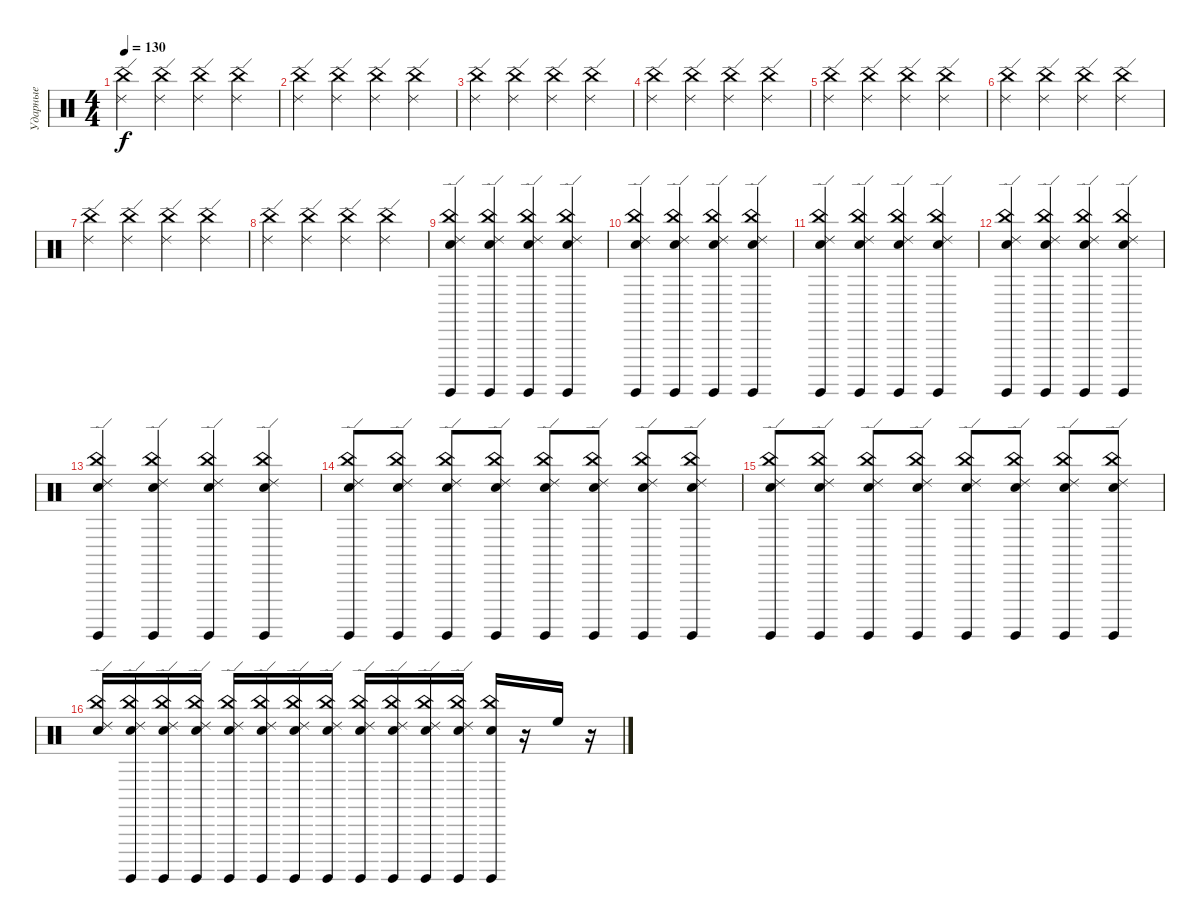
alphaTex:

\track ("Ударные" "Ударные") {instrument percussion}
\staff {score}
\articulation defaults
\ts (4 4)
\tempo 130
\clef neutral
\ks c
("Ride (edge) 2" "China (hit)").4{dy f} ("Ride (edge) 2" "China (hit)").4 ("Ride (edge) 2" "China (hit)").4 ("Ride (edge) 2" "China (hit)").4 |
("Ride (edge) 2" "China (hit)").4 ("Ride (edge) 2" "China (hit)").4 ("Ride (edge) 2" "China (hit)").4 ("Ride (edge) 2" "China (hit)").4 |
("Ride (edge) 2" "China (hit)").4 ("Ride (edge) 2" "China (hit)").4 ("Ride (edge) 2" "China (hit)").4 ("Ride (edge) 2" "China (hit)").4 |
("Ride (edge) 2" "China (hit)").4 ("Ride (edge) 2" "China (hit)").4 ("Ride (edge) 2" "China (hit)").4 ("Ride (edge) 2" "China (hit)").4 |
("Ride (edge) 2" "China (hit)").4 ("Ride (edge) 2" "China (hit)").4 ("Ride (edge) 2" "China (hit)").4 ("Ride (edge) 2" "China (hit)").4 |
("Ride (edge) 2" "China (hit)").4 ("Ride (edge) 2" "China (hit)").4 ("Ride (edge) 2" "China (hit)").4 ("Ride (edge) 2" "China (hit)").4 |
("Ride (edge) 2" "China (hit)").4 ("Ride (edge) 2" "China (hit)").4 ("Ride (edge) 2" "China (hit)").4 ("Ride (edge) 2" "China (hit)").4 |
("Ride (edge) 2" "China (hit)").4 ("Ride (edge) 2" "China (hit)").4 ("Ride (edge) 2" "China (hit)").4 ("Ride (edge) 2" "China (hit)").4 |
("Snare (hit) 2" "Surdo (hit)" "Ride (edge) 2" "China (hit)").4 ("Snare (hit) 2" "Surdo (hit)" "Ride (edge) 2" "China (hit)").4 ("Snare (hit) 2" "Surdo (hit)" "Ride (edge) 2" "China (hit)").4 ("Snare (hit) 2" "Surdo (hit)" "Ride (edge) 2" "China (hit)").4 |
("Snare (hit) 2" "Surdo (hit)" "Ride (edge) 2" "China (hit)").4 ("Snare (hit) 2" "Surdo (hit)" "Ride (edge) 2" "China (hit)").4 ("Snare (hit) 2" "Surdo (hit)" "Ride (edge) 2" "China (hit)").4 ("Snare (hit) 2" "Surdo (hit)" "Ride (edge) 2" "China (hit)").4 |
("Snare (hit) 2" "Surdo (hit)" "Ride (edge) 2" "China (hit)").4 ("Snare (hit) 2" "Surdo (hit)" "Ride (edge) 2" "China (hit)").4 ("Snare (hit) 2" "Surdo (hit)" "Ride (edge) 2" "China (hit)").4 ("Snare (hit) 2" "Surdo (hit)" "Ride (edge) 2" "China (hit)").4 |
("Snare (hit) 2" "Surdo (hit)" "Ride (edge) 2" "China (hit)").4 ("Snare (hit) 2" "Surdo (hit)" "Ride (edge) 2" "China (hit)").4 ("Snare (hit) 2" "Surdo (hit)" "Ride (edge) 2" "China (hit)").4 ("Snare (hit) 2" "Surdo (hit)" "Ride (edge) 2" "China (hit)").4 |
("Snare (hit) 2" "Surdo (hit)" "Ride (edge) 2" "China (hit)").4 ("Snare (hit) 2" "Surdo (hit)" "Ride (edge) 2" "China (hit)").4 ("Snare (hit) 2" "Surdo (hit)" "Ride (edge) 2" "China (hit)").4 ("Snare (hit) 2" "Surdo (hit)" "Ride (edge) 2" "China (hit)").4 |
("Snare (hit) 2" "Surdo (hit)" "Ride (edge) 2" "China (hit)").8 ("Snare (hit) 2" "Surdo (hit)" "Ride (edge) 2" "China (hit)").8 ("Snare (hit) 2" "Surdo (hit)" "Ride (edge) 2" "China (hit)").8 ("Snare (hit) 2" "Surdo (hit)" "Ride (edge) 2" "China (hit)").8 ("Snare (hit) 2" "Surdo (hit)" "Ride (edge) 2" "China (hit)").8 ("Snare (hit) 2" "Surdo (hit)" "Ride (edge) 2" "China (hit)").8 ("Snare (hit) 2" "Surdo (hit)" "Ride (edge) 2" "China (hit)").8 ("Snare (hit) 2" "Surdo (hit)" "Ride (edge) 2" "China (hit)").8 |
("Snare (hit) 2" "Surdo (hit)" "Ride (edge) 2" "China (hit)").8 ("Snare (hit) 2" "Surdo (hit)" "Ride (edge) 2" "China (hit)").8 ("Snare (hit) 2" "Surdo (hit)" "Ride (edge) 2" "China (hit)").8 ("Snare (hit) 2" "Surdo (hit)" "Ride (edge) 2" "China (hit)").8 ("Snare (hit) 2" "Surdo (hit)" "Ride (edge) 2" "China (hit)").8 ("Snare (hit) 2" "Surdo (hit)" "Ride (edge) 2" "China (hit)").8 ("Snare (hit) 2" "Surdo (hit)" "Ride (edge) 2" "China (hit)").8 ("Snare (hit) 2" "Surdo (hit)" "Ride (edge) 2" "China (hit)").8 |
("Snare (hit) 2" "Ride (edge) 2" "China (hit)").16 ("Snare (hit) 2" "Surdo (hit)" "Ride (edge) 2" "China (hit)").16 ("Snare (hit) 2" "Surdo (hit)" "Ride (edge) 2" "China (hit)").16 ("Snare (hit) 2" "Surdo (hit)" "Ride (edge) 2" "China (hit)").16 ("Snare (hit) 2" "Surdo (hit)" "Ride (edge) 2" "China (hit)").16 ("Snare (hit) 2" "Surdo (hit)" "Ride (edge) 2" "China (hit)").16 ("Snare (hit) 2" "Surdo (hit)" "Ride (edge) 2" "China (hit)").16 ("Snare (hit) 2" "Surdo (hit)" "Ride (edge) 2" "China (hit)").16 ("Snare (hit) 2" "Surdo (hit)" "Ride (edge) 2" "China (hit)").16 ("Snare (hit) 2" "Surdo (hit)" "Ride (edge) 2" "China (hit)").16 ("Snare (hit) 2" "Surdo (hit)" "Ride (edge) 2" "China (hit)").16 ("Snare (hit) 2" "Surdo (hit)" "Ride (edge) 2" "China (hit)").16 ("Snare (hit) 2" "Surdo (hit)" "China (hit)").16 r.16 "High Floor Tom (hit)".16 r.16
